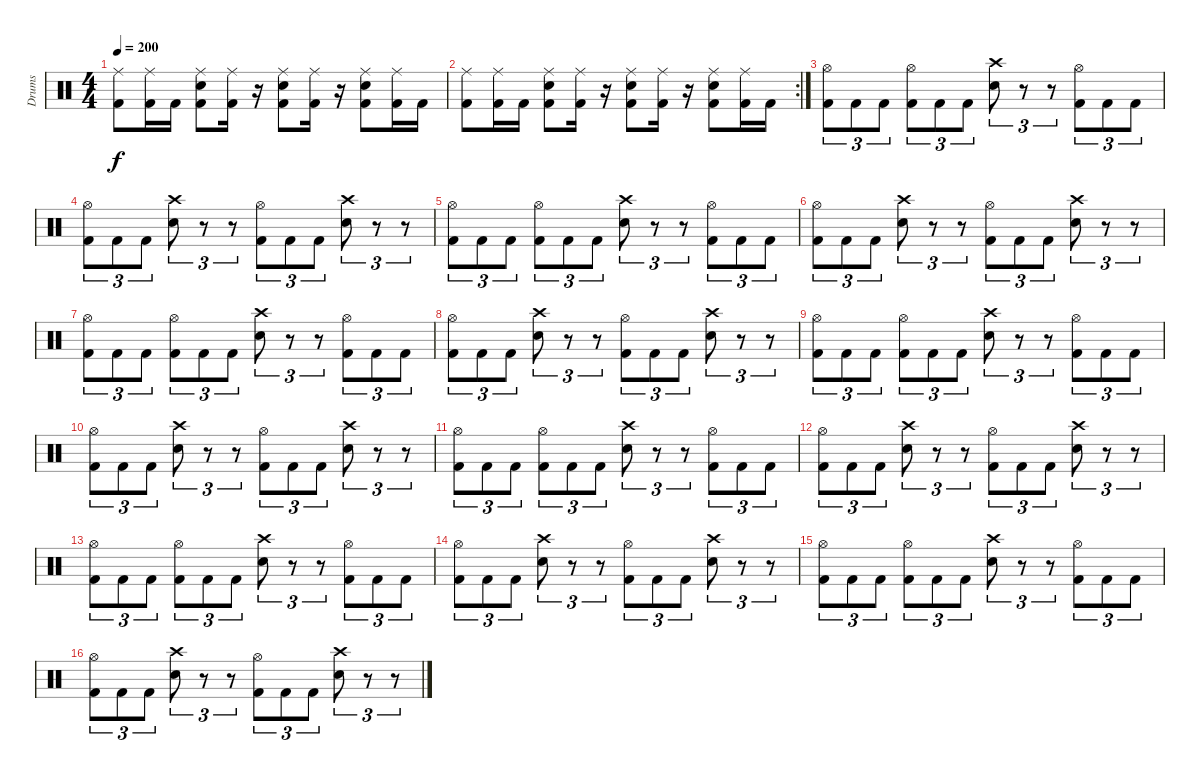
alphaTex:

\track ("Drums" "Drums") {instrument percussion}
\staff {score}
\articulation defaults
\ts (4 4)
\tempo 200
\clef neutral
\ks c
("Kick (hit) 2" "Ride (middle)").8{dy f} ("Kick (hit) 2" "Ride (middle)").16 "Kick (hit) 2".16 ("Kick (hit) 2" "Snare (hit) 2" "Ride (middle)").8 ("Kick (hit) 2" "Ride (middle)").16 r.16 ("Kick (hit) 2" "Snare (hit) 2" "Ride (middle)").8 ("Kick (hit) 2" "Ride (middle)").16 r.16 ("Kick (hit) 2" "Snare (hit) 2" "Ride (middle)").8 ("Kick (hit) 2" "Ride (middle)").16 "Kick (hit) 2".16 |
\rc 2
("Kick (hit) 2" "Ride (middle)").8 ("Kick (hit) 2" "Ride (middle)").16 "Kick (hit) 2".16 ("Kick (hit) 2" "Snare (hit) 2" "Ride (middle)").8 ("Kick (hit) 2" "Ride (middle)").16 r.16 ("Kick (hit) 2" "Snare (hit) 2" "Ride (middle)").8 ("Kick (hit) 2" "Ride (middle)").16 r.16 ("Kick (hit) 2" "Snare (hit) 2" "Ride (middle)").8 ("Kick (hit) 2" "Ride (middle)").16 "Kick (hit) 2".16 |
("Kick (hit) 2" "Hi-Hat (open)").8{tu (3 2)} "Kick (hit) 2".8{tu (3 2)} "Kick (hit) 2".8{tu (3 2)} ("Kick (hit) 2" "Hi-Hat (open)").8{tu (3 2)} "Kick (hit) 2".8{tu (3 2)} "Kick (hit) 2".8{tu (3 2)} ("Snare (hit) 2" "Crash high (hit)").8{tu (3 2)} r.8{tu (3 2)} r.8{tu (3 2)} ("Kick (hit) 2" "Hi-Hat (open)").8{tu (3 2)} "Kick (hit) 2".8{tu (3 2)} "Kick (hit) 2".8{tu (3 2)} |
("Kick (hit) 2" "Hi-Hat (open)").8{tu (3 2)} "Kick (hit) 2".8{tu (3 2)} "Kick (hit) 2".8{tu (3 2)} ("Snare (hit) 2" "Crash high (hit)").8{tu (3 2)} r.8{tu (3 2)} r.8{tu (3 2)} ("Kick (hit) 2" "Hi-Hat (open)").8{tu (3 2)} "Kick (hit) 2".8{tu (3 2)} "Kick (hit) 2".8{tu (3 2)} ("Snare (hit) 2" "Crash high (hit)").8{tu (3 2)} r.8{tu (3 2)} r.8{tu (3 2)} |
("Kick (hit) 2" "Hi-Hat (open)").8{tu (3 2)} "Kick (hit) 2".8{tu (3 2)} "Kick (hit) 2".8{tu (3 2)} ("Kick (hit) 2" "Hi-Hat (open)").8{tu (3 2)} "Kick (hit) 2".8{tu (3 2)} "Kick (hit) 2".8{tu (3 2)} ("Snare (hit) 2" "Crash high (hit)").8{tu (3 2)} r.8{tu (3 2)} r.8{tu (3 2)} ("Kick (hit) 2" "Hi-Hat (open)").8{tu (3 2)} "Kick (hit) 2".8{tu (3 2)} "Kick (hit) 2".8{tu (3 2)} |
("Kick (hit) 2" "Hi-Hat (open)").8{tu (3 2)} "Kick (hit) 2".8{tu (3 2)} "Kick (hit) 2".8{tu (3 2)} ("Snare (hit) 2" "Crash high (hit)").8{tu (3 2)} r.8{tu (3 2)} r.8{tu (3 2)} ("Kick (hit) 2" "Hi-Hat (open)").8{tu (3 2)} "Kick (hit) 2".8{tu (3 2)} "Kick (hit) 2".8{tu (3 2)} ("Snare (hit) 2" "Crash high (hit)").8{tu (3 2)} r.8{tu (3 2)} r.8{tu (3 2)} |
("Kick (hit) 2" "Hi-Hat (open)").8{tu (3 2)} "Kick (hit) 2".8{tu (3 2)} "Kick (hit) 2".8{tu (3 2)} ("Kick (hit) 2" "Hi-Hat (open)").8{tu (3 2)} "Kick (hit) 2".8{tu (3 2)} "Kick (hit) 2".8{tu (3 2)} ("Snare (hit) 2" "Crash high (hit)").8{tu (3 2)} r.8{tu (3 2)} r.8{tu (3 2)} ("Kick (hit) 2" "Hi-Hat (open)").8{tu (3 2)} "Kick (hit) 2".8{tu (3 2)} "Kick (hit) 2".8{tu (3 2)} |
("Kick (hit) 2" "Hi-Hat (open)").8{tu (3 2)} "Kick (hit) 2".8{tu (3 2)} "Kick (hit) 2".8{tu (3 2)} ("Snare (hit) 2" "Crash high (hit)").8{tu (3 2)} r.8{tu (3 2)} r.8{tu (3 2)} ("Kick (hit) 2" "Hi-Hat (open)").8{tu (3 2)} "Kick (hit) 2".8{tu (3 2)} "Kick (hit) 2".8{tu (3 2)} ("Snare (hit) 2" "Crash high (hit)").8{tu (3 2)} r.8{tu (3 2)} r.8{tu (3 2)} |
("Kick (hit) 2" "Hi-Hat (open)").8{tu (3 2)} "Kick (hit) 2".8{tu (3 2)} "Kick (hit) 2".8{tu (3 2)} ("Kick (hit) 2" "Hi-Hat (open)").8{tu (3 2)} "Kick (hit) 2".8{tu (3 2)} "Kick (hit) 2".8{tu (3 2)} ("Snare (hit) 2" "Crash high (hit)").8{tu (3 2)} r.8{tu (3 2)} r.8{tu (3 2)} ("Kick (hit) 2" "Hi-Hat (open)").8{tu (3 2)} "Kick (hit) 2".8{tu (3 2)} "Kick (hit) 2".8{tu (3 2)} |
("Kick (hit) 2" "Hi-Hat (open)").8{tu (3 2)} "Kick (hit) 2".8{tu (3 2)} "Kick (hit) 2".8{tu (3 2)} ("Snare (hit) 2" "Crash high (hit)").8{tu (3 2)} r.8{tu (3 2)} r.8{tu (3 2)} ("Kick (hit) 2" "Hi-Hat (open)").8{tu (3 2)} "Kick (hit) 2".8{tu (3 2)} "Kick (hit) 2".8{tu (3 2)} ("Snare (hit) 2" "Crash high (hit)").8{tu (3 2)} r.8{tu (3 2)} r.8{tu (3 2)} |
("Kick (hit) 2" "Hi-Hat (open)").8{tu (3 2)} "Kick (hit) 2".8{tu (3 2)} "Kick (hit) 2".8{tu (3 2)} ("Kick (hit) 2" "Hi-Hat (open)").8{tu (3 2)} "Kick (hit) 2".8{tu (3 2)} "Kick (hit) 2".8{tu (3 2)} ("Snare (hit) 2" "Crash high (hit)").8{tu (3 2)} r.8{tu (3 2)} r.8{tu (3 2)} ("Kick (hit) 2" "Hi-Hat (open)").8{tu (3 2)} "Kick (hit) 2".8{tu (3 2)} "Kick (hit) 2".8{tu (3 2)} |
("Kick (hit) 2" "Hi-Hat (open)").8{tu (3 2)} "Kick (hit) 2".8{tu (3 2)} "Kick (hit) 2".8{tu (3 2)} ("Snare (hit) 2" "Crash high (hit)").8{tu (3 2)} r.8{tu (3 2)} r.8{tu (3 2)} ("Kick (hit) 2" "Hi-Hat (open)").8{tu (3 2)} "Kick (hit) 2".8{tu (3 2)} "Kick (hit) 2".8{tu (3 2)} ("Snare (hit) 2" "Crash high (hit)").8{tu (3 2)} r.8{tu (3 2)} r.8{tu (3 2)} |
("Kick (hit) 2" "Hi-Hat (open)").8{tu (3 2)} "Kick (hit) 2".8{tu (3 2)} "Kick (hit) 2".8{tu (3 2)} ("Kick (hit) 2" "Hi-Hat (open)").8{tu (3 2)} "Kick (hit) 2".8{tu (3 2)} "Kick (hit) 2".8{tu (3 2)} ("Snare (hit) 2" "Crash high (hit)").8{tu (3 2)} r.8{tu (3 2)} r.8{tu (3 2)} ("Kick (hit) 2" "Hi-Hat (open)").8{tu (3 2)} "Kick (hit) 2".8{tu (3 2)} "Kick (hit) 2".8{tu (3 2)} |
("Kick (hit) 2" "Hi-Hat (open)").8{tu (3 2)} "Kick (hit) 2".8{tu (3 2)} "Kick (hit) 2".8{tu (3 2)} ("Snare (hit) 2" "Crash high (hit)").8{tu (3 2)} r.8{tu (3 2)} r.8{tu (3 2)} ("Kick (hit) 2" "Hi-Hat (open)").8{tu (3 2)} "Kick (hit) 2".8{tu (3 2)} "Kick (hit) 2".8{tu (3 2)} ("Snare (hit) 2" "Crash high (hit)").8{tu (3 2)} r.8{tu (3 2)} r.8{tu (3 2)} |
("Kick (hit) 2" "Hi-Hat (open)").8{tu (3 2)} "Kick (hit) 2".8{tu (3 2)} "Kick (hit) 2".8{tu (3 2)} ("Kick (hit) 2" "Hi-Hat (open)").8{tu (3 2)} "Kick (hit) 2".8{tu (3 2)} "Kick (hit) 2".8{tu (3 2)} ("Snare (hit) 2" "Crash high (hit)").8{tu (3 2)} r.8{tu (3 2)} r.8{tu (3 2)} ("Kick (hit) 2" "Hi-Hat (open)").8{tu (3 2)} "Kick (hit) 2".8{tu (3 2)} "Kick (hit) 2".8{tu (3 2)} |
("Kick (hit) 2" "Hi-Hat (open)").8{tu (3 2)} "Kick (hit) 2".8{tu (3 2)} "Kick (hit) 2".8{tu (3 2)} ("Snare (hit) 2" "Crash high (hit)").8{tu (3 2)} r.8{tu (3 2)} r.8{tu (3 2)} ("Kick (hit) 2" "Hi-Hat (open)").8{tu (3 2)} "Kick (hit) 2".8{tu (3 2)} "Kick (hit) 2".8{tu (3 2)} ("Snare (hit) 2" "Crash high (hit)").8{tu (3 2)} r.8{tu (3 2)} r.8{tu (3 2)}
